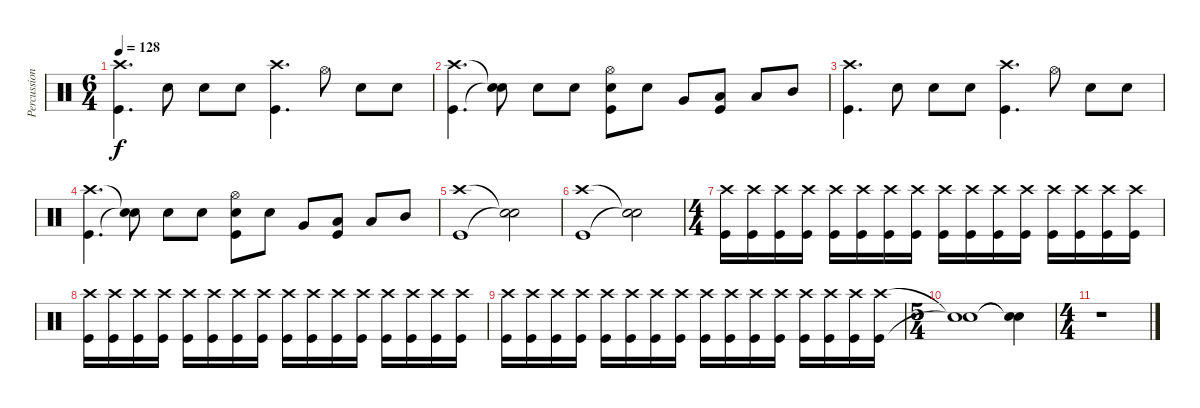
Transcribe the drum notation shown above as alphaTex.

\track ("Percussion" "Percussion") {instrument percussion}
\staff {score}
\articulation defaults
\ts (6 4)
\tempo 128
\clef neutral
\ks c
("Kick (hit)" "Crash high (hit)").4{d dy f} "Snare (hit) 2".8 "Snare (hit) 2".8 "Snare (hit) 2".8 ("Kick (hit)" "Crash high (hit)").4{d} "Hi-Hat (open)".8 "Snare (hit) 2".8 "Snare (hit) 2".8 |
("Kick (hit)" "Crash high (hit)").4{d} ("Snare (hit)"{t} "Snare (hit)"{t}).8 "Snare (hit) 2".8 "Snare (hit) 2".8 ("Kick (hit)" "Snare (hit) 2" "Hi-Hat (open)").8 "Snare (hit) 2".8 "Very Low Tom (hit)".8 ("Kick (hit)" "Low Tom (hit)").8 "Low Tom (hit)".8 "Mid Tom (hit)".8 |
("Kick (hit)" "Crash high (hit)").4{d} "Snare (hit) 2".8 "Snare (hit) 2".8 "Snare (hit) 2".8 ("Kick (hit)" "Crash high (hit)").4{d} "Hi-Hat (open)".8 "Snare (hit) 2".8 "Snare (hit) 2".8 |
("Kick (hit)" "Crash high (hit)").4{d} ("Snare (hit)"{t} "Snare (hit)"{t}).8 "Snare (hit) 2".8 "Snare (hit) 2".8 ("Kick (hit)" "Snare (hit) 2" "Hi-Hat (open)").8 "Snare (hit) 2".8 "Very Low Tom (hit)".8 ("Kick (hit)" "Low Tom (hit)").8 "Low Tom (hit)".8 "Mid Tom (hit)".8 |
("Kick (hit)" "Crash high (hit)").1 ("Snare (hit)"{t} "Snare (hit)"{t}).2 |
("Kick (hit)" "Crash high (hit)").1 ("Snare (hit)"{t} "Snare (hit)"{t}).2 |
\ts (4 4)
("Kick (hit)" "Crash high (hit)").16 ("Kick (hit)" "Crash high (hit)").16 ("Kick (hit)" "Crash high (hit)").16 ("Kick (hit)" "Crash high (hit)").16 ("Kick (hit)" "Crash high (hit)").16 ("Kick (hit)" "Crash high (hit)").16 ("Kick (hit)" "Crash high (hit)").16 ("Kick (hit)" "Crash high (hit)").16 ("Kick (hit)" "Crash high (hit)").16 ("Kick (hit)" "Crash high (hit)").16 ("Kick (hit)" "Crash high (hit)").16 ("Kick (hit)" "Crash high (hit)").16 ("Kick (hit)" "Crash high (hit)").16 ("Kick (hit)" "Crash high (hit)").16 ("Kick (hit)" "Crash high (hit)").16 ("Kick (hit)" "Crash high (hit)").16 |
("Kick (hit)" "Crash high (hit)").16 ("Kick (hit)" "Crash high (hit)").16 ("Kick (hit)" "Crash high (hit)").16 ("Kick (hit)" "Crash high (hit)").16 ("Kick (hit)" "Crash high (hit)").16 ("Kick (hit)" "Crash high (hit)").16 ("Kick (hit)" "Crash high (hit)").16 ("Kick (hit)" "Crash high (hit)").16 ("Kick (hit)" "Crash high (hit)").16 ("Kick (hit)" "Crash high (hit)").16 ("Kick (hit)" "Crash high (hit)").16 ("Kick (hit)" "Crash high (hit)").16 ("Kick (hit)" "Crash high (hit)").16 ("Kick (hit)" "Crash high (hit)").16 ("Kick (hit)" "Crash high (hit)").16 ("Kick (hit)" "Crash high (hit)").16 |
("Kick (hit)" "Crash high (hit)").16 ("Kick (hit)" "Crash high (hit)").16 ("Kick (hit)" "Crash high (hit)").16 ("Kick (hit)" "Crash high (hit)").16 ("Kick (hit)" "Crash high (hit)").16 ("Kick (hit)" "Crash high (hit)").16 ("Kick (hit)" "Crash high (hit)").16 ("Kick (hit)" "Crash high (hit)").16 ("Kick (hit)" "Crash high (hit)").16 ("Kick (hit)" "Crash high (hit)").16 ("Kick (hit)" "Crash high (hit)").16 ("Kick (hit)" "Crash high (hit)").16 ("Kick (hit)" "Crash high (hit)").16 ("Kick (hit)" "Crash high (hit)").16 ("Kick (hit)" "Crash high (hit)").16 ("Kick (hit)" "Crash high (hit)").16 |
\ts (5 4)
("Snare (hit)"{t} "Snare (hit)"{t}).1 ("Snare (hit)"{t} "Snare (hit)"{t}).4 |
\ts (4 4)
r.1
